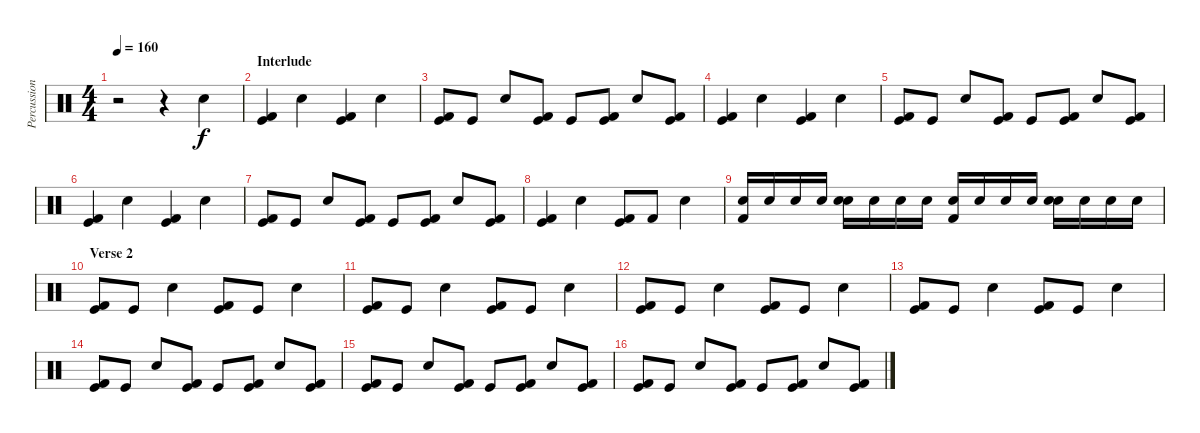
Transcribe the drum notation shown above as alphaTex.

\track ("Percussion" "Percussion") {instrument percussion}
\staff {score}
\articulation defaults
\ts (4 4)
\tempo 160
\clef neutral
\ks c
r.2{dy f} r.4 "Electric Snare (hit)".4 |
\section ("" "Interlude")
("Kick (hit)" "Kick (hit) 2").4 "Electric Snare (hit)".4 ("Kick (hit)" "Kick (hit) 2").4 "Electric Snare (hit)".4 |
("Kick (hit)" "Kick (hit) 2").8 "Kick (hit)".8 "Electric Snare (hit)".8 ("Kick (hit)" "Kick (hit) 2").8 "Kick (hit)".8 ("Kick (hit)" "Kick (hit) 2").8 "Electric Snare (hit)".8 ("Kick (hit)" "Kick (hit) 2").8 |
("Kick (hit)" "Kick (hit) 2").4 "Electric Snare (hit)".4 ("Kick (hit)" "Kick (hit) 2").4 "Electric Snare (hit)".4 |
("Kick (hit)" "Kick (hit) 2").8 "Kick (hit)".8 "Electric Snare (hit)".8 ("Kick (hit)" "Kick (hit) 2").8 "Kick (hit)".8 ("Kick (hit)" "Kick (hit) 2").8 "Electric Snare (hit)".8 ("Kick (hit)" "Kick (hit) 2").8 |
("Kick (hit)" "Kick (hit) 2").4 "Electric Snare (hit)".4 ("Kick (hit)" "Kick (hit) 2").4 "Electric Snare (hit)".4 |
("Kick (hit)" "Kick (hit) 2").8 "Kick (hit)".8 "Electric Snare (hit)".8 ("Kick (hit)" "Kick (hit) 2").8 "Kick (hit)".8 ("Kick (hit)" "Kick (hit) 2").8 "Electric Snare (hit)".8 ("Kick (hit)" "Kick (hit) 2").8 |
("Kick (hit)" "Kick (hit) 2").4 "Electric Snare (hit)".4 ("Kick (hit)" "Kick (hit) 2").8 "Kick (hit) 2".8 "Electric Snare (hit)".4 |
("Electric Snare (hit)" "Kick (hit) 2").16 "Electric Snare (hit)".16 "Electric Snare (hit)".16 "Electric Snare (hit)".16 ("Electric Snare (hit)" "Electric Snare (hit)").16 "Electric Snare (hit)".16 "Electric Snare (hit)".16 "Electric Snare (hit)".16 ("Electric Snare (hit)" "Kick (hit) 2").16 "Electric Snare (hit)".16 "Electric Snare (hit)".16 "Electric Snare (hit)".16 ("Electric Snare (hit)" "Electric Snare (hit)").16 "Electric Snare (hit)".16 "Electric Snare (hit)".16 "Electric Snare (hit)".16 |
\section ("" "Verse 2")
("Kick (hit)" "Kick (hit) 2").8 "Kick (hit)".8 "Electric Snare (hit)".4 ("Kick (hit)" "Kick (hit) 2").8 "Kick (hit)".8 "Electric Snare (hit)".4 |
("Kick (hit)" "Kick (hit) 2").8 "Kick (hit)".8 "Electric Snare (hit)".4 ("Kick (hit)" "Kick (hit) 2").8 "Kick (hit)".8 "Electric Snare (hit)".4 |
("Kick (hit)" "Kick (hit) 2").8 "Kick (hit)".8 "Electric Snare (hit)".4 ("Kick (hit)" "Kick (hit) 2").8 "Kick (hit)".8 "Electric Snare (hit)".4 |
("Kick (hit)" "Kick (hit) 2").8 "Kick (hit)".8 "Electric Snare (hit)".4 ("Kick (hit)" "Kick (hit) 2").8 "Kick (hit)".8 "Electric Snare (hit)".4 |
("Kick (hit)" "Kick (hit) 2").8 "Kick (hit)".8 "Electric Snare (hit)".8 ("Kick (hit)" "Kick (hit) 2").8 "Kick (hit)".8 ("Kick (hit)" "Kick (hit) 2").8 "Electric Snare (hit)".8 ("Kick (hit)" "Kick (hit) 2").8 |
("Kick (hit)" "Kick (hit) 2").8 "Kick (hit)".8 "Electric Snare (hit)".8 ("Kick (hit)" "Kick (hit) 2").8 "Kick (hit)".8 ("Kick (hit)" "Kick (hit) 2").8 "Electric Snare (hit)".8 ("Kick (hit)" "Kick (hit) 2").8 |
("Kick (hit)" "Kick (hit) 2").8 "Kick (hit)".8 "Electric Snare (hit)".8 ("Kick (hit)" "Kick (hit) 2").8 "Kick (hit)".8 ("Kick (hit)" "Kick (hit) 2").8 "Electric Snare (hit)".8 ("Kick (hit)" "Kick (hit) 2").8
